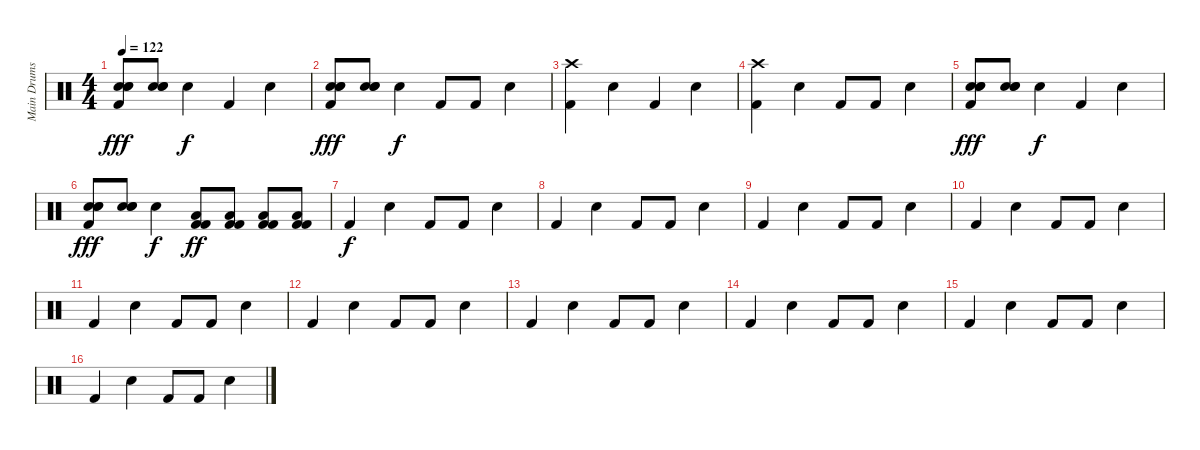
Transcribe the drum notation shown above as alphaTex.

\track ("Main Drums" "Main Drums") {instrument percussion}
\staff {score}
\articulation defaults
\ts (4 4)
\tempo 122
\clef neutral
\ks c
("Hand Clap (hit)" "Hand Clap (hit)" "Electric Snare (hit)" "Kick (hit) 2").8{dy fff} ("Hand Clap (hit)" "Hand Clap (hit)" "Electric Snare (hit)").8 "Snare (hit) 2".4{dy f} "Kick (hit) 2".4 "Snare (hit) 2".4 |
("Hand Clap (hit)" "Hand Clap (hit)" "Electric Snare (hit)" "Kick (hit) 2").8{dy fff} ("Hand Clap (hit)" "Hand Clap (hit)" "Electric Snare (hit)").8 "Snare (hit) 2".4{dy f} "Kick (hit) 2".8 "Kick (hit) 2".8 "Snare (hit) 2".4 |
("Kick (hit) 2" "Crash high (hit)").4 "Snare (hit) 2".4 "Kick (hit) 2".4 "Snare (hit) 2".4 |
("Kick (hit) 2" "Crash high (hit)").4 "Snare (hit) 2".4 "Kick (hit) 2".8 "Kick (hit) 2".8 "Snare (hit) 2".4 |
("Hand Clap (hit)" "Hand Clap (hit)" "Electric Snare (hit)" "Kick (hit) 2").8{dy fff} ("Hand Clap (hit)" "Hand Clap (hit)" "Electric Snare (hit)").8 "Snare (hit) 2".4{dy f} "Kick (hit) 2".4 "Snare (hit) 2".4 |
("Hand Clap (hit)" "Hand Clap (hit)" "Electric Snare (hit)" "Kick (hit) 2").8{dy fff} ("Hand Clap (hit)" "Hand Clap (hit)" "Electric Snare (hit)").8 "Snare (hit) 2".4{dy f} ("Kick (hit) 2" "Kick (hit) 2" "Low Floor Tom (hit)").8{dy ff} ("Kick (hit) 2" "Kick (hit) 2" "Low Floor Tom (hit)").8 ("Kick (hit) 2" "Kick (hit) 2" "Low Floor Tom (hit)").8 ("Kick (hit) 2" "Kick (hit) 2" "Low Floor Tom (hit)").8 |
"Kick (hit) 2".4{dy f} "Snare (hit) 2".4 "Kick (hit) 2".8 "Kick (hit) 2".8 "Snare (hit) 2".4 |
"Kick (hit) 2".4 "Snare (hit) 2".4 "Kick (hit) 2".8 "Kick (hit) 2".8 "Snare (hit) 2".4 |
"Kick (hit) 2".4 "Snare (hit) 2".4 "Kick (hit) 2".8 "Kick (hit) 2".8 "Snare (hit) 2".4 |
"Kick (hit) 2".4 "Snare (hit) 2".4 "Kick (hit) 2".8 "Kick (hit) 2".8 "Snare (hit) 2".4 |
"Kick (hit) 2".4 "Snare (hit) 2".4 "Kick (hit) 2".8 "Kick (hit) 2".8 "Snare (hit) 2".4 |
"Kick (hit) 2".4 "Snare (hit) 2".4 "Kick (hit) 2".8 "Kick (hit) 2".8 "Snare (hit) 2".4 |
"Kick (hit) 2".4 "Snare (hit) 2".4 "Kick (hit) 2".8 "Kick (hit) 2".8 "Snare (hit) 2".4 |
"Kick (hit) 2".4 "Snare (hit) 2".4 "Kick (hit) 2".8 "Kick (hit) 2".8 "Snare (hit) 2".4 |
"Kick (hit) 2".4 "Snare (hit) 2".4 "Kick (hit) 2".8 "Kick (hit) 2".8 "Snare (hit) 2".4 |
"Kick (hit) 2".4 "Snare (hit) 2".4 "Kick (hit) 2".8 "Kick (hit) 2".8 "Snare (hit) 2".4
